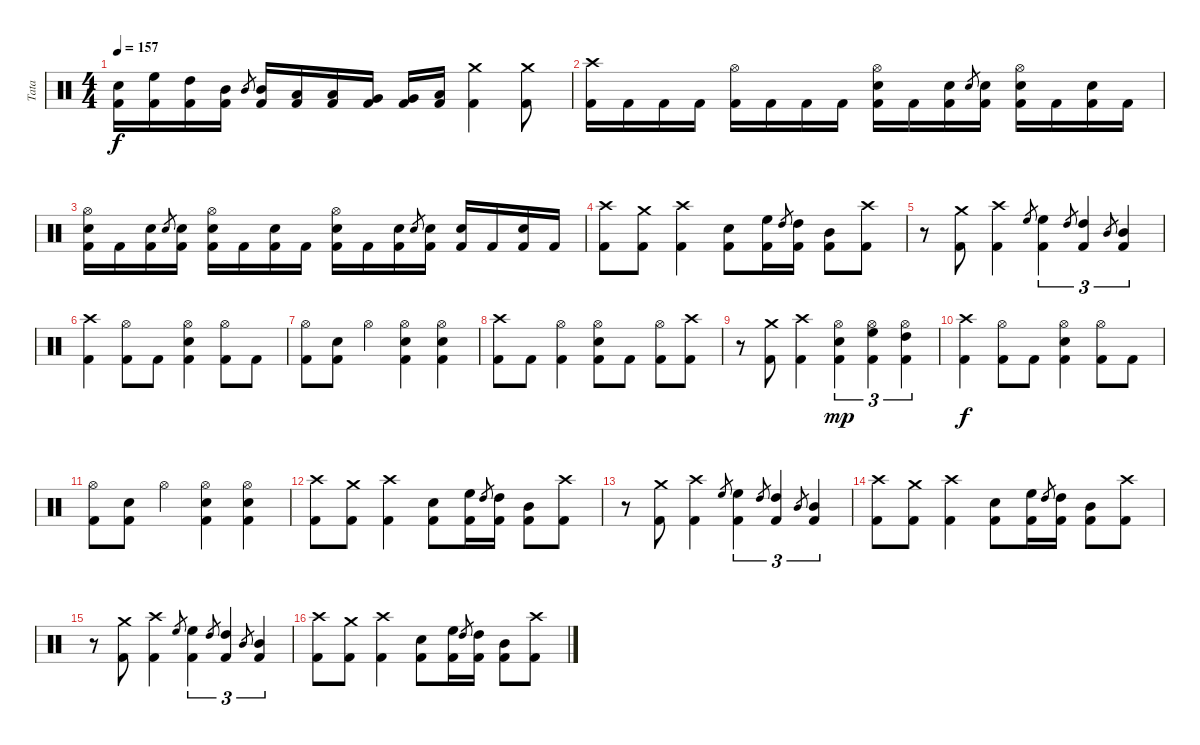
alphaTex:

\track ("Tata" "Tata") {instrument percussion}
\staff {score}
\articulation defaults
\ts (4 4)
\tempo 157
\clef neutral
\ks c
("Kick (hit) 2" "Electric Snare (hit)").16{dy f} ("Kick (hit) 2" "High Floor Tom (hit)").16 ("Kick (hit) 2" "High Tom (hit)").16 ("Kick (hit) 2" "Mid Tom (hit)").16 "Mid Tom (hit)".8{gr} ("Kick (hit) 2" "Mid Tom (hit)").16 ("Kick (hit) 2" "Low Tom (hit)").16 ("Kick (hit) 2" "Low Tom (hit)").16 ("Kick (hit) 2" "Very Low Tom (hit)").16 ("Kick (hit) 2" "Very Low Tom (hit)").16 ("Kick (hit) 2" "Low Floor Tom (hit)").16 ("Kick (hit) 2" "Crash medium (hit)").4 ("Kick (hit) 2" "Crash medium (hit)").8 |
("Kick (hit) 2" "Crash high (hit)").16 "Kick (hit) 2".16 "Kick (hit) 2".16 "Kick (hit) 2".16 ("Kick (hit) 2" "Hi-Hat (open)").16 "Kick (hit) 2".16 "Kick (hit) 2".16 "Kick (hit) 2".16 ("Kick (hit) 2" "Electric Snare (hit)" "Hi-Hat (open)").16 "Kick (hit) 2".16 ("Kick (hit) 2" "Electric Snare (hit)").16 "Electric Snare (hit)".8{gr} ("Kick (hit) 2" "Electric Snare (hit)").16 ("Kick (hit) 2" "Electric Snare (hit)" "Hi-Hat (open)").16 "Kick (hit) 2".16 ("Kick (hit) 2" "Electric Snare (hit)").16 "Kick (hit) 2".16 |
("Kick (hit) 2" "Electric Snare (hit)" "Hi-Hat (open)").16 "Kick (hit) 2".16 ("Kick (hit) 2" "Electric Snare (hit)").16 "Electric Snare (hit)".8{gr} ("Kick (hit) 2" "Electric Snare (hit)").16 ("Kick (hit) 2" "Electric Snare (hit)" "Hi-Hat (open)").16 "Kick (hit) 2".16 ("Kick (hit) 2" "Electric Snare (hit)").16 "Kick (hit) 2".16 ("Kick (hit) 2" "Electric Snare (hit)" "Hi-Hat (open)").16 "Kick (hit) 2".16 ("Kick (hit) 2" "Electric Snare (hit)").16 "Electric Snare (hit)".8{gr} ("Kick (hit) 2" "Electric Snare (hit)").16 ("Kick (hit) 2" "Electric Snare (hit)").16 "Kick (hit) 2".16 ("Kick (hit) 2" "Electric Snare (hit)").16 "Kick (hit) 2".16 |
("Kick (hit) 2" "Crash high (hit)").8 ("Kick (hit) 2" "Crash medium (hit)").8 ("Kick (hit) 2" "Crash high (hit)").4 ("Kick (hit) 2" "Electric Snare (hit)").8 ("Kick (hit) 2" "High Floor Tom (hit)").16 "High Tom (hit)".8{gr} ("Kick (hit) 2" "High Tom (hit)").16 ("Kick (hit) 2" "Mid Tom (hit)").8 ("Kick (hit) 2" "Crash high (hit)").8 |
r.8 ("Kick (hit) 2" "Crash medium (hit)").8 ("Kick (hit) 2" "Crash high (hit)").4 "High Floor Tom (hit)".8{gr} ("Kick (hit) 2" "High Floor Tom (hit)").4{tu (3 2)} "High Tom (hit)".8{gr} ("Kick (hit) 2" "High Tom (hit)").4{tu (3 2)} "Mid Tom (hit)".8{gr} ("Kick (hit) 2" "Mid Tom (hit)").4{tu (3 2)} |
("Kick (hit) 2" "Crash high (hit)").4 ("Kick (hit) 2" "Hi-Hat (open)").8 "Kick (hit) 2".8 ("Kick (hit) 2" "Electric Snare (hit)" "Hi-Hat (open)").4 ("Kick (hit) 2" "Hi-Hat (open)").8 "Kick (hit) 2".8 |
("Kick (hit) 2" "Hi-Hat (open)").8 ("Kick (hit) 2" "Electric Snare (hit)").8 "Hi-Hat (open)".4 ("Kick (hit) 2" "Electric Snare (hit)" "Hi-Hat (open)").4 ("Kick (hit) 2" "Electric Snare (hit)" "Hi-Hat (open)").4 |
("Kick (hit) 2" "Crash high (hit)").8 "Kick (hit) 2".8 ("Kick (hit) 2" "Hi-Hat (open)").4 ("Kick (hit) 2" "Electric Snare (hit)" "Hi-Hat (open)").8 "Kick (hit) 2".8 ("Kick (hit) 2" "Hi-Hat (open)").8 ("Kick (hit) 2" "Crash high (hit)").8 |
r.8 ("Kick (hit) 2" "Crash medium (hit)").8 ("Kick (hit) 2" "Crash high (hit)").4 ("Kick (hit) 2" "Electric Snare (hit)" "Hi-Hat (open)").4{tu (3 2) dy mp} ("Kick (hit) 2" "High Floor Tom (hit)" "Hi-Hat (open)").4{tu (3 2)} ("Kick (hit) 2" "High Tom (hit)" "Hi-Hat (open)").4{tu (3 2)} |
("Kick (hit) 2" "Crash high (hit)").4{dy f} ("Kick (hit) 2" "Hi-Hat (open)").8 "Kick (hit) 2".8 ("Kick (hit) 2" "Electric Snare (hit)" "Hi-Hat (open)").4 ("Kick (hit) 2" "Hi-Hat (open)").8 "Kick (hit) 2".8 |
("Kick (hit) 2" "Hi-Hat (open)").8 ("Kick (hit) 2" "Electric Snare (hit)").8 "Hi-Hat (open)".4 ("Kick (hit) 2" "Electric Snare (hit)" "Hi-Hat (open)").4 ("Kick (hit) 2" "Electric Snare (hit)" "Hi-Hat (open)").4 |
("Kick (hit) 2" "Crash high (hit)").8 ("Kick (hit) 2" "Crash medium (hit)").8 ("Kick (hit) 2" "Crash high (hit)").4 ("Kick (hit) 2" "Electric Snare (hit)").8 ("Kick (hit) 2" "High Floor Tom (hit)").16 "High Tom (hit)".8{gr} ("Kick (hit) 2" "High Tom (hit)").16 ("Kick (hit) 2" "Mid Tom (hit)").8 ("Kick (hit) 2" "Crash high (hit)").8 |
r.8 ("Kick (hit) 2" "Crash medium (hit)").8 ("Kick (hit) 2" "Crash high (hit)").4 "High Floor Tom (hit)".8{gr} ("Kick (hit) 2" "High Floor Tom (hit)").4{tu (3 2)} "High Tom (hit)".8{gr} ("Kick (hit) 2" "High Tom (hit)").4{tu (3 2)} "Mid Tom (hit)".8{gr} ("Kick (hit) 2" "Mid Tom (hit)").4{tu (3 2)} |
("Kick (hit) 2" "Crash high (hit)").8 ("Kick (hit) 2" "Crash medium (hit)").8 ("Kick (hit) 2" "Crash high (hit)").4 ("Kick (hit) 2" "Electric Snare (hit)").8 ("Kick (hit) 2" "High Floor Tom (hit)").16 "High Tom (hit)".8{gr} ("Kick (hit) 2" "High Tom (hit)").16 ("Kick (hit) 2" "Mid Tom (hit)").8 ("Kick (hit) 2" "Crash high (hit)").8 |
r.8 ("Kick (hit) 2" "Crash medium (hit)").8 ("Kick (hit) 2" "Crash high (hit)").4 "High Floor Tom (hit)".8{gr} ("Kick (hit) 2" "High Floor Tom (hit)").4{tu (3 2)} "High Tom (hit)".8{gr} ("Kick (hit) 2" "High Tom (hit)").4{tu (3 2)} "Mid Tom (hit)".8{gr} ("Kick (hit) 2" "Mid Tom (hit)").4{tu (3 2)} |
("Kick (hit) 2" "Crash high (hit)").8 ("Kick (hit) 2" "Crash medium (hit)").8 ("Kick (hit) 2" "Crash high (hit)").4 ("Kick (hit) 2" "Electric Snare (hit)").8 ("Kick (hit) 2" "High Floor Tom (hit)").16 "High Tom (hit)".8{gr} ("Kick (hit) 2" "High Tom (hit)").16 ("Kick (hit) 2" "Mid Tom (hit)").8 ("Kick (hit) 2" "Crash high (hit)").8
